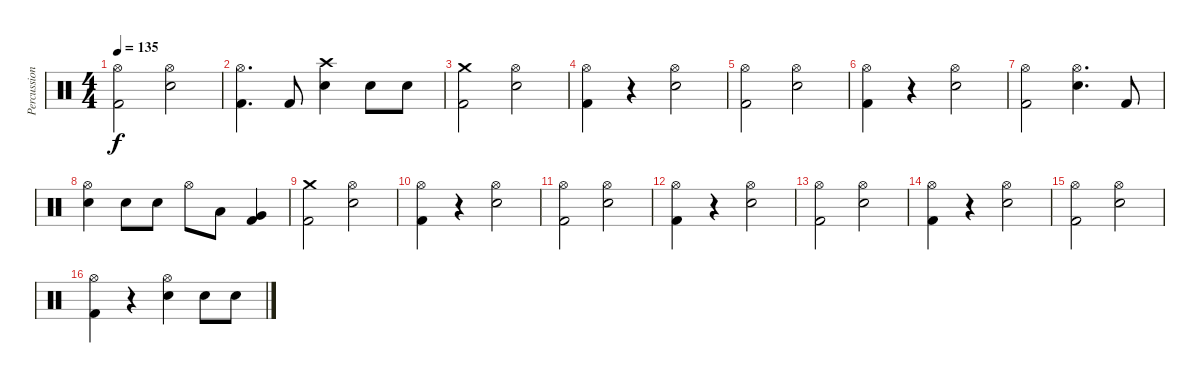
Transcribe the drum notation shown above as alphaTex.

\track ("Percussion" "Percussion") {instrument percussion}
\staff {score}
\articulation defaults
\ts (4 4)
\tempo 135
\clef neutral
\ks c
("Hi-Hat (open)" "Kick (hit) 2").2{dy f} ("Hi-Hat (open)" "Electric Snare (hit)").2 |
("Hi-Hat (open)" "Kick (hit) 2").4{d} "Kick (hit) 2".8 ("Crash high (hit)" "Electric Snare (hit)").4 "Electric Snare (hit)".8 "Electric Snare (hit)".8 |
("Crash medium (hit)" "Kick (hit) 2").2 ("Hi-Hat (open)" "Electric Snare (hit)").2 |
("Hi-Hat (open)" "Kick (hit) 2").4 r.4 ("Hi-Hat (open)" "Electric Snare (hit)").2 |
("Hi-Hat (open)" "Kick (hit) 2").2 ("Hi-Hat (open)" "Electric Snare (hit)").2 |
("Hi-Hat (open)" "Kick (hit) 2").4 r.4 ("Hi-Hat (open)" "Electric Snare (hit)").2 |
("Hi-Hat (open)" "Kick (hit) 2").2 ("Hi-Hat (open)" "Electric Snare (hit)").4{d} "Kick (hit) 2".8 |
("Hi-Hat (open)" "Electric Snare (hit)").4 "Electric Snare (hit)".8 "Electric Snare (hit)".8 "Hi-Hat (open)".8 "Low Tom (hit)".8 ("Very Low Tom (hit)" "Kick (hit) 2").4 |
("Crash medium (hit)" "Kick (hit) 2").2 ("Hi-Hat (open)" "Electric Snare (hit)").2 |
("Hi-Hat (open)" "Kick (hit) 2").4 r.4 ("Hi-Hat (open)" "Electric Snare (hit)").2 |
("Hi-Hat (open)" "Kick (hit) 2").2 ("Hi-Hat (open)" "Electric Snare (hit)").2 |
("Hi-Hat (open)" "Kick (hit) 2").4 r.4 ("Hi-Hat (open)" "Electric Snare (hit)").2 |
("Hi-Hat (open)" "Kick (hit) 2").2 ("Hi-Hat (open)" "Electric Snare (hit)").2 |
("Hi-Hat (open)" "Kick (hit) 2").4 r.4 ("Hi-Hat (open)" "Electric Snare (hit)").2 |
("Hi-Hat (open)" "Kick (hit) 2").2 ("Hi-Hat (open)" "Electric Snare (hit)").2 |
("Hi-Hat (open)" "Kick (hit) 2").4 r.4 ("Hi-Hat (open)" "Electric Snare (hit)").4 "Electric Snare (hit)".8 "Electric Snare (hit)".8
